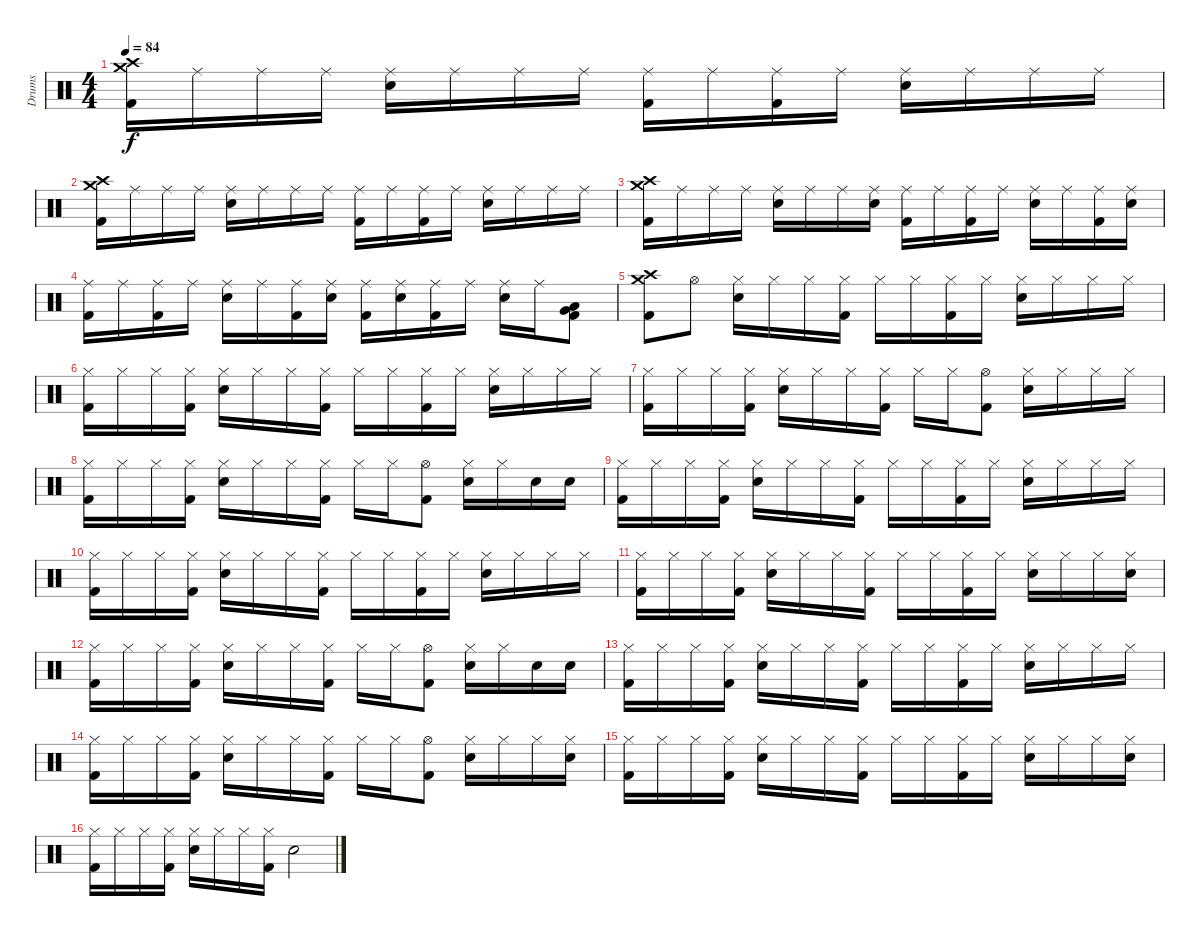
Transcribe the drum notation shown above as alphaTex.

\track ("Drums" "Drums") {instrument percussion}
\staff {score}
\articulation defaults
\ts (4 4)
\tempo 84
\clef neutral
\ks c
("Crash high (hit)" "Crash medium (hit)" "Kick (hit) 2").16{dy f} "Ride (middle)".16 "Ride (middle)".16 "Ride (middle)".16 ("Ride (middle)" "Snare (hit) 2").16 "Ride (middle)".16 "Ride (middle)".16 "Ride (middle)".16 ("Ride (middle)" "Kick (hit) 2").16 "Ride (middle)".16 ("Ride (middle)" "Kick (hit) 2").16 "Ride (middle)".16 ("Ride (middle)" "Snare (hit) 2").16 "Ride (middle)".16 "Ride (middle)".16 "Ride (middle)".16 |
("Crash high (hit)" "Crash medium (hit)" "Kick (hit) 2").16 "Ride (middle)".16 "Ride (middle)".16 "Ride (middle)".16 ("Ride (middle)" "Snare (hit) 2").16 "Ride (middle)".16 "Ride (middle)".16 "Ride (middle)".16 ("Ride (middle)" "Kick (hit) 2").16 "Ride (middle)".16 ("Ride (middle)" "Kick (hit) 2").16 "Ride (middle)".16 ("Ride (middle)" "Snare (hit) 2").16 "Ride (middle)".16 "Ride (middle)".16 "Ride (middle)".16 |
("Crash high (hit)" "Crash medium (hit)" "Kick (hit) 2").16 "Ride (middle)".16 "Ride (middle)".16 "Ride (middle)".16 ("Ride (middle)" "Snare (hit) 2").16 "Ride (middle)".16 "Ride (middle)".16 ("Ride (middle)" "Snare (hit) 2").16 ("Ride (middle)" "Kick (hit) 2").16 "Ride (middle)".16 ("Ride (middle)" "Kick (hit) 2").16 "Ride (middle)".16 ("Ride (middle)" "Snare (hit) 2").16 "Ride (middle)".16 ("Ride (middle)" "Kick (hit) 2").16 ("Ride (middle)" "Snare (hit) 2").16 |
("Ride (middle)" "Kick (hit) 2").16 "Ride (middle)".16 ("Ride (middle)" "Kick (hit) 2").16 "Ride (middle)".16 ("Ride (middle)" "Snare (hit) 2").16 "Ride (middle)".16 ("Ride (middle)" "Kick (hit) 2").16 ("Ride (middle)" "Snare (hit) 2").16 ("Ride (middle)" "Kick (hit) 2").16 ("Ride (middle)" "Snare (hit) 2").16 ("Ride (middle)" "Kick (hit) 2").16 "Ride (middle)".16 ("Ride (middle)" "Snare (hit) 2").16 "Ride (middle)".16 ("Very Low Tom (hit)" "Low Floor Tom (hit)" "Kick (hit) 2").8 |
("Crash high (hit)" "Crash medium (hit)" "Kick (hit) 2").8 "Hi-Hat (open)".8 ("Hi-Hat (closed)" "Snare (hit) 2").16 "Hi-Hat (closed)".16 "Hi-Hat (closed)".16 ("Hi-Hat (closed)" "Kick (hit) 2").16 "Hi-Hat (closed)".16 "Hi-Hat (closed)".16 ("Hi-Hat (closed)" "Kick (hit) 2").16 "Hi-Hat (closed)".16 ("Hi-Hat (closed)" "Snare (hit) 2").16 "Hi-Hat (closed)".16 "Hi-Hat (closed)".16 "Hi-Hat (closed)".16 |
("Hi-Hat (closed)" "Kick (hit) 2").16 "Hi-Hat (closed)".16 "Hi-Hat (closed)".16 ("Hi-Hat (closed)" "Kick (hit) 2").16 ("Hi-Hat (closed)" "Snare (hit) 2").16 "Hi-Hat (closed)".16 "Hi-Hat (closed)".16 ("Hi-Hat (closed)" "Kick (hit) 2").16 "Hi-Hat (closed)".16 "Hi-Hat (closed)".16 ("Hi-Hat (closed)" "Kick (hit) 2").16 "Hi-Hat (closed)".16 ("Hi-Hat (closed)" "Snare (hit) 2").16 "Hi-Hat (closed)".16 "Hi-Hat (closed)".16 "Hi-Hat (closed)".16 |
("Hi-Hat (closed)" "Kick (hit) 2").16 "Hi-Hat (closed)".16 "Hi-Hat (closed)".16 ("Hi-Hat (closed)" "Kick (hit) 2").16 ("Hi-Hat (closed)" "Snare (hit) 2").16 "Hi-Hat (closed)".16 "Hi-Hat (closed)".16 ("Hi-Hat (closed)" "Kick (hit) 2").16 "Hi-Hat (closed)".16 "Hi-Hat (closed)".16 ("Hi-Hat (open)" "Kick (hit) 2").8 ("Hi-Hat (closed)" "Snare (hit) 2").16 "Hi-Hat (closed)".16 "Hi-Hat (closed)".16 "Hi-Hat (closed)".16 |
("Hi-Hat (closed)" "Kick (hit) 2").16 "Hi-Hat (closed)".16 "Hi-Hat (closed)".16 ("Hi-Hat (closed)" "Kick (hit) 2").16 ("Hi-Hat (closed)" "Snare (hit) 2").16 "Hi-Hat (closed)".16 "Hi-Hat (closed)".16 ("Hi-Hat (closed)" "Kick (hit) 2").16 "Hi-Hat (closed)".16 "Hi-Hat (closed)".16 ("Hi-Hat (open)" "Kick (hit) 2").8 ("Hi-Hat (closed)" "Snare (hit) 2").16 "Hi-Hat (closed)".16 "Snare (hit) 2".16 "Snare (hit) 2".16 |
("Hi-Hat (closed)" "Kick (hit) 2").16 "Hi-Hat (closed)".16 "Hi-Hat (closed)".16 ("Hi-Hat (closed)" "Kick (hit) 2").16 ("Hi-Hat (closed)" "Snare (hit) 2").16 "Hi-Hat (closed)".16 "Hi-Hat (closed)".16 ("Hi-Hat (closed)" "Kick (hit) 2").16 "Hi-Hat (closed)".16 "Hi-Hat (closed)".16 ("Hi-Hat (closed)" "Kick (hit) 2").16 "Hi-Hat (closed)".16 ("Hi-Hat (closed)" "Snare (hit) 2").16 "Hi-Hat (closed)".16 "Hi-Hat (closed)".16 "Hi-Hat (closed)".16 |
("Hi-Hat (closed)" "Kick (hit) 2").16 "Hi-Hat (closed)".16 "Hi-Hat (closed)".16 ("Hi-Hat (closed)" "Kick (hit) 2").16 ("Hi-Hat (closed)" "Snare (hit) 2").16 "Hi-Hat (closed)".16 "Hi-Hat (closed)".16 ("Hi-Hat (closed)" "Kick (hit) 2").16 "Hi-Hat (closed)".16 "Hi-Hat (closed)".16 ("Hi-Hat (closed)" "Kick (hit) 2").16 "Hi-Hat (closed)".16 ("Hi-Hat (closed)" "Snare (hit) 2").16 "Hi-Hat (closed)".16 "Hi-Hat (closed)".16 "Hi-Hat (closed)".16 |
("Hi-Hat (closed)" "Kick (hit) 2").16 "Hi-Hat (closed)".16 "Hi-Hat (closed)".16 ("Hi-Hat (closed)" "Kick (hit) 2").16 ("Hi-Hat (closed)" "Snare (hit) 2").16 "Hi-Hat (closed)".16 "Hi-Hat (closed)".16 ("Hi-Hat (closed)" "Kick (hit) 2").16 "Hi-Hat (closed)".16 "Hi-Hat (closed)".16 ("Hi-Hat (closed)" "Kick (hit) 2").16 "Hi-Hat (closed)".16 ("Hi-Hat (closed)" "Snare (hit) 2").16 "Hi-Hat (closed)".16 "Hi-Hat (closed)".16 ("Hi-Hat (closed)" "Snare (hit) 2").16 |
("Hi-Hat (closed)" "Kick (hit) 2").16 "Hi-Hat (closed)".16 "Hi-Hat (closed)".16 ("Hi-Hat (closed)" "Kick (hit) 2").16 ("Hi-Hat (closed)" "Snare (hit) 2").16 "Hi-Hat (closed)".16 "Hi-Hat (closed)".16 ("Hi-Hat (closed)" "Kick (hit) 2").16 "Hi-Hat (closed)".16 "Hi-Hat (closed)".16 ("Hi-Hat (open)" "Kick (hit) 2").8 ("Hi-Hat (closed)" "Snare (hit) 2").16 "Hi-Hat (closed)".16 "Snare (hit) 2".16 "Snare (hit) 2".16 |
("Hi-Hat (closed)" "Kick (hit) 2").16 "Hi-Hat (closed)".16 "Hi-Hat (closed)".16 ("Hi-Hat (closed)" "Kick (hit) 2").16 ("Hi-Hat (closed)" "Snare (hit) 2").16 "Hi-Hat (closed)".16 "Hi-Hat (closed)".16 ("Hi-Hat (closed)" "Kick (hit) 2").16 "Hi-Hat (closed)".16 "Hi-Hat (closed)".16 ("Hi-Hat (closed)" "Kick (hit) 2").16 "Hi-Hat (closed)".16 ("Hi-Hat (closed)" "Snare (hit) 2").16 "Hi-Hat (closed)".16 "Hi-Hat (closed)".16 "Hi-Hat (closed)".16 |
("Hi-Hat (closed)" "Kick (hit) 2").16 "Hi-Hat (closed)".16 "Hi-Hat (closed)".16 ("Hi-Hat (closed)" "Kick (hit) 2").16 ("Hi-Hat (closed)" "Snare (hit) 2").16 "Hi-Hat (closed)".16 "Hi-Hat (closed)".16 ("Hi-Hat (closed)" "Kick (hit) 2").16 "Hi-Hat (closed)".16 "Hi-Hat (closed)".16 ("Hi-Hat (open)" "Kick (hit) 2").8 ("Hi-Hat (closed)" "Snare (hit) 2").16 "Hi-Hat (closed)".16 "Hi-Hat (closed)".16 ("Hi-Hat (closed)" "Snare (hit) 2").16 |
("Hi-Hat (closed)" "Kick (hit) 2").16 "Hi-Hat (closed)".16 "Hi-Hat (closed)".16 ("Hi-Hat (closed)" "Kick (hit) 2").16 ("Hi-Hat (closed)" "Snare (hit) 2").16 "Hi-Hat (closed)".16 "Hi-Hat (closed)".16 ("Hi-Hat (closed)" "Kick (hit) 2").16 "Hi-Hat (closed)".16 "Hi-Hat (closed)".16 ("Hi-Hat (closed)" "Kick (hit) 2").16 "Hi-Hat (closed)".16 ("Hi-Hat (closed)" "Snare (hit) 2").16 "Hi-Hat (closed)".16 "Hi-Hat (closed)".16 ("Hi-Hat (closed)" "Snare (hit) 2").16 |
("Hi-Hat (closed)" "Kick (hit) 2").16 "Hi-Hat (closed)".16 "Hi-Hat (closed)".16 ("Hi-Hat (closed)" "Kick (hit) 2").16 ("Hi-Hat (closed)" "Snare (hit) 2").16 "Hi-Hat (closed)".16 "Hi-Hat (closed)".16 ("Hi-Hat (closed)" "Kick (hit) 2").16 "Snare (hit) 2".2
